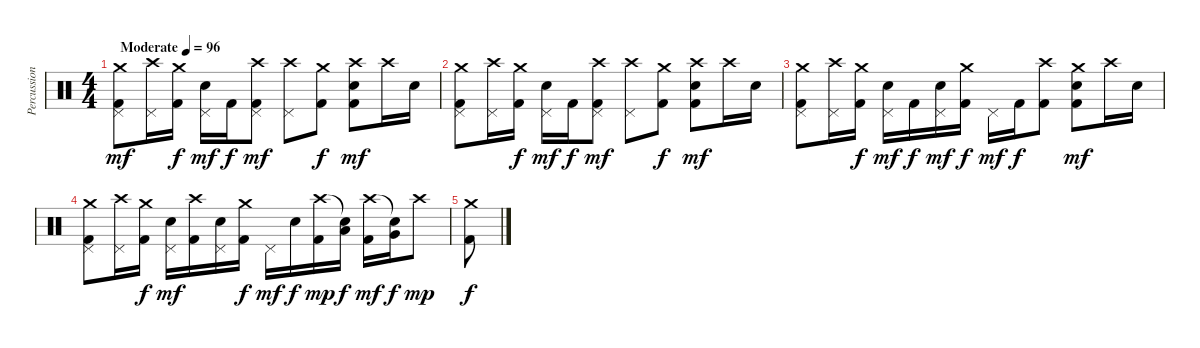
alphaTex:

\track ("Percussion" "Percussion") {instrument percussion}
\staff {score}
\articulation defaults
\ts (4 4)
\tempo (96 "Moderate")
\clef neutral
\ks c
("Crash medium (hit)" "Pedal Hi-Hat (hit)" "Kick (hit) 2").8{dy mf} ("Crash high (hit)" "Pedal Hi-Hat (hit)").16 ("Crash medium (hit)" "Kick (hit) 2").16{dy f} ("Snare (hit) 2" "Pedal Hi-Hat (hit)").16{dy mf} "Kick (hit) 2".16{dy f} ("Crash high (hit)" "Pedal Hi-Hat (hit)" "Kick (hit) 2").8{dy mf} ("Crash high (hit)" "Pedal Hi-Hat (hit)").8 ("Crash medium (hit)" "Kick (hit) 2").8{dy f} ("Crash high (hit)" "Snare (hit) 2" "Kick (hit) 2").8{dy mf} "Crash high (hit)".16 "Snare (hit) 2".16 |
("Crash medium (hit)" "Pedal Hi-Hat (hit)" "Kick (hit) 2").8 ("Crash high (hit)" "Pedal Hi-Hat (hit)").16 ("Crash medium (hit)" "Kick (hit) 2").16{dy f} ("Snare (hit) 2" "Pedal Hi-Hat (hit)").16{dy mf} "Kick (hit) 2".16{dy f} ("Crash high (hit)" "Pedal Hi-Hat (hit)" "Kick (hit) 2").8{dy mf} ("Crash high (hit)" "Pedal Hi-Hat (hit)").8 ("Crash medium (hit)" "Kick (hit) 2").8{dy f} ("Crash high (hit)" "Snare (hit) 2" "Kick (hit) 2").8{dy mf} "Crash high (hit)".16 "Snare (hit) 2".16 |
("Crash medium (hit)" "Pedal Hi-Hat (hit)" "Kick (hit) 2").8 ("Crash high (hit)" "Pedal Hi-Hat (hit)").16 ("Crash medium (hit)" "Kick (hit) 2").16{dy f} ("Snare (hit) 2" "Pedal Hi-Hat (hit)").16{dy mf} "Kick (hit) 2".16{dy f} ("Snare (hit) 2" "Pedal Hi-Hat (hit)").16{dy mf} ("Crash medium (hit)" "Kick (hit) 2").16{dy f} "Pedal Hi-Hat (hit)".16{dy mf} "Kick (hit) 2".16{dy f} ("Crash high (hit)" "Kick (hit) 2").8 ("Crash medium (hit)" "Snare (hit) 2" "Kick (hit) 2").8{dy mf} "Crash high (hit)".16 "Snare (hit) 2".16 |
("Crash medium (hit)" "Pedal Hi-Hat (hit)" "Kick (hit) 2").8 ("Crash high (hit)" "Pedal Hi-Hat (hit)").16 ("Crash medium (hit)" "Kick (hit) 2").16{dy f} ("Snare (hit) 2" "Pedal Hi-Hat (hit)").16{dy mf} ("Crash high (hit)" "Kick (hit) 2").16 ("Snare (hit) 2" "Pedal Hi-Hat (hit)").16 ("Crash medium (hit)" "Kick (hit) 2").16{dy f} "Pedal Hi-Hat (hit)".16{dy mf} "Snare (hit) 2".16{dy f} ("Crash high (hit)" "Kick (hit) 2").16{dy mp} ("Snare (hit)"{t} "Low Tom (hit)").16{dy f} ("Crash high (hit)" "Kick (hit) 2").16{dy mf} ("Snare (hit)"{t} "Very Low Tom (hit)").16{dy f} "Crash high (hit)".8{dy mp} |
("Crash medium (hit)" "Kick (hit) 2").8{dy f}
